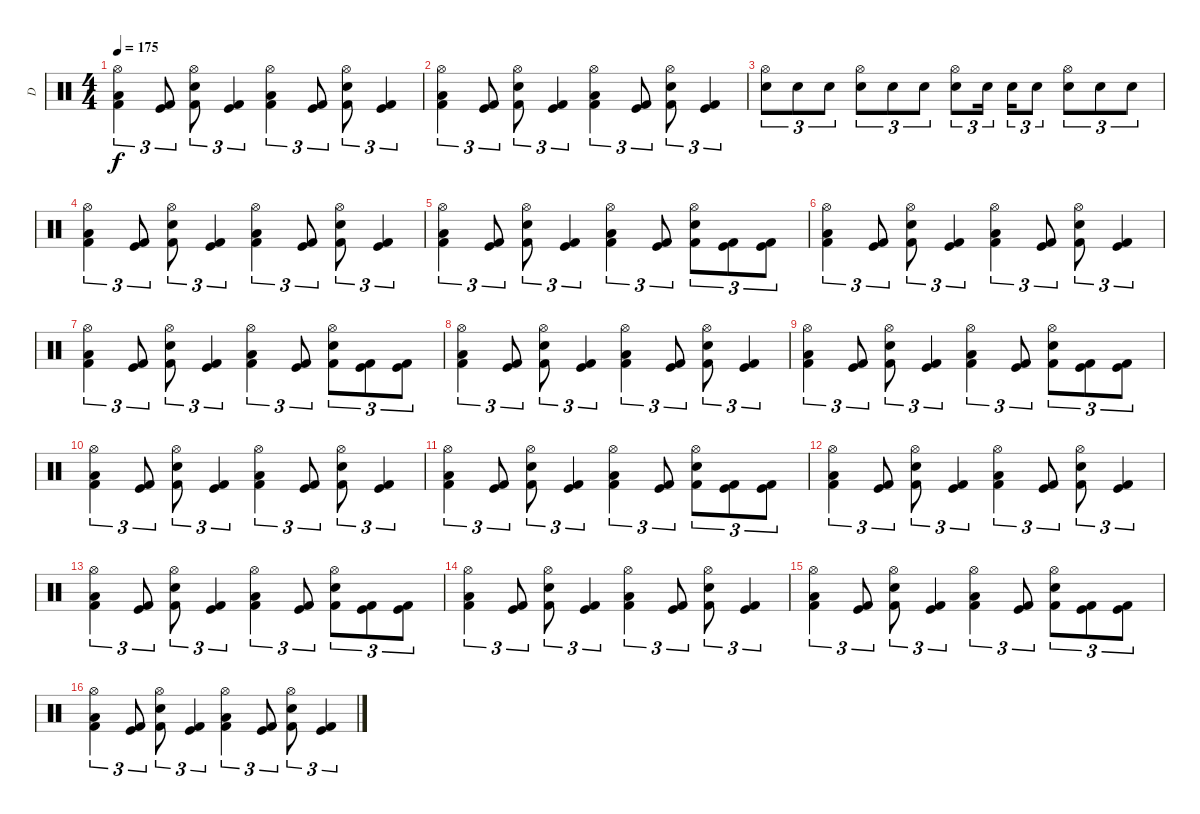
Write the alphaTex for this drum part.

\track ("D" "D") {instrument percussion}
\staff {score}
\articulation defaults
\ts (4 4)
\tempo 175
\clef neutral
\ks c
("Hi-Hat (open)" "Low Floor Tom (hit)" "Kick (hit) 2").4{tu (3 2) dy f} ("Kick (hit)" "Kick (hit) 2").8{tu (3 2)} ("Hi-Hat (open)" "Electric Snare (hit)" "Kick (hit) 2").8{tu (3 2)} ("Kick (hit)" "Kick (hit) 2").4{tu (3 2)} ("Hi-Hat (open)" "Low Floor Tom (hit)" "Kick (hit) 2").4{tu (3 2)} ("Kick (hit)" "Kick (hit) 2").8{tu (3 2)} ("Hi-Hat (open)" "Electric Snare (hit)" "Kick (hit) 2").8{tu (3 2)} ("Kick (hit)" "Kick (hit) 2").4{tu (3 2)} |
("Hi-Hat (open)" "Low Floor Tom (hit)" "Kick (hit) 2").4{tu (3 2)} ("Kick (hit)" "Kick (hit) 2").8{tu (3 2)} ("Hi-Hat (open)" "Electric Snare (hit)" "Kick (hit) 2").8{tu (3 2)} ("Kick (hit)" "Kick (hit) 2").4{tu (3 2)} ("Hi-Hat (open)" "Low Floor Tom (hit)" "Kick (hit) 2").4{tu (3 2)} ("Kick (hit)" "Kick (hit) 2").8{tu (3 2)} ("Hi-Hat (open)" "Electric Snare (hit)" "Kick (hit) 2").8{tu (3 2)} ("Kick (hit)" "Kick (hit) 2").4{tu (3 2)} |
("Hi-Hat (open)" "Electric Snare (hit)").8{tu (3 2)} "Electric Snare (hit)".8{tu (3 2)} "Electric Snare (hit)".8{tu (3 2)} ("Hi-Hat (open)" "Electric Snare (hit)").8{tu (3 2)} "Electric Snare (hit)".8{tu (3 2)} "Electric Snare (hit)".8{tu (3 2)} ("Hi-Hat (open)" "Electric Snare (hit)").8{tu (3 2)} "Electric Snare (hit)".16{tu (3 2)} "Electric Snare (hit)".16{tu (3 2)} "Electric Snare (hit)".8{tu (3 2)} ("Hi-Hat (open)" "Electric Snare (hit)").8{tu (3 2)} "Electric Snare (hit)".8{tu (3 2)} "Electric Snare (hit)".8{tu (3 2)} |
("Hi-Hat (open)" "Low Floor Tom (hit)" "Kick (hit) 2").4{tu (3 2)} ("Kick (hit)" "Kick (hit) 2").8{tu (3 2)} ("Hi-Hat (open)" "Electric Snare (hit)" "Kick (hit) 2").8{tu (3 2)} ("Kick (hit)" "Kick (hit) 2").4{tu (3 2)} ("Hi-Hat (open)" "Low Floor Tom (hit)" "Kick (hit) 2").4{tu (3 2)} ("Kick (hit)" "Kick (hit) 2").8{tu (3 2)} ("Hi-Hat (open)" "Electric Snare (hit)" "Kick (hit) 2").8{tu (3 2)} ("Kick (hit)" "Kick (hit) 2").4{tu (3 2)} |
("Hi-Hat (open)" "Low Floor Tom (hit)" "Kick (hit) 2").4{tu (3 2)} ("Kick (hit)" "Kick (hit) 2").8{tu (3 2)} ("Hi-Hat (open)" "Electric Snare (hit)" "Kick (hit) 2").8{tu (3 2)} ("Kick (hit)" "Kick (hit) 2").4{tu (3 2)} ("Hi-Hat (open)" "Low Floor Tom (hit)" "Kick (hit) 2").4{tu (3 2)} ("Kick (hit)" "Kick (hit) 2").8{tu (3 2)} ("Hi-Hat (open)" "Snare (hit) 2" "Kick (hit) 2").8{tu (3 2)} ("Kick (hit)" "Kick (hit) 2").8{tu (3 2)} ("Kick (hit)" "Kick (hit) 2").8{tu (3 2)} |
("Hi-Hat (open)" "Low Floor Tom (hit)" "Kick (hit) 2").4{tu (3 2)} ("Kick (hit)" "Kick (hit) 2").8{tu (3 2)} ("Hi-Hat (open)" "Electric Snare (hit)" "Kick (hit) 2").8{tu (3 2)} ("Kick (hit)" "Kick (hit) 2").4{tu (3 2)} ("Hi-Hat (open)" "Low Floor Tom (hit)" "Kick (hit) 2").4{tu (3 2)} ("Kick (hit)" "Kick (hit) 2").8{tu (3 2)} ("Hi-Hat (open)" "Electric Snare (hit)" "Kick (hit) 2").8{tu (3 2)} ("Kick (hit)" "Kick (hit) 2").4{tu (3 2)} |
("Hi-Hat (open)" "Low Floor Tom (hit)" "Kick (hit) 2").4{tu (3 2)} ("Kick (hit)" "Kick (hit) 2").8{tu (3 2)} ("Hi-Hat (open)" "Electric Snare (hit)" "Kick (hit) 2").8{tu (3 2)} ("Kick (hit)" "Kick (hit) 2").4{tu (3 2)} ("Hi-Hat (open)" "Low Floor Tom (hit)" "Kick (hit) 2").4{tu (3 2)} ("Kick (hit)" "Kick (hit) 2").8{tu (3 2)} ("Hi-Hat (open)" "Snare (hit) 2" "Kick (hit) 2").8{tu (3 2)} ("Kick (hit)" "Kick (hit) 2").8{tu (3 2)} ("Kick (hit)" "Kick (hit) 2").8{tu (3 2)} |
("Hi-Hat (open)" "Low Floor Tom (hit)" "Kick (hit) 2").4{tu (3 2)} ("Kick (hit)" "Kick (hit) 2").8{tu (3 2)} ("Hi-Hat (open)" "Electric Snare (hit)" "Kick (hit) 2").8{tu (3 2)} ("Kick (hit)" "Kick (hit) 2").4{tu (3 2)} ("Hi-Hat (open)" "Low Floor Tom (hit)" "Kick (hit) 2").4{tu (3 2)} ("Kick (hit)" "Kick (hit) 2").8{tu (3 2)} ("Hi-Hat (open)" "Electric Snare (hit)" "Kick (hit) 2").8{tu (3 2)} ("Kick (hit)" "Kick (hit) 2").4{tu (3 2)} |
("Hi-Hat (open)" "Low Floor Tom (hit)" "Kick (hit) 2").4{tu (3 2)} ("Kick (hit)" "Kick (hit) 2").8{tu (3 2)} ("Hi-Hat (open)" "Electric Snare (hit)" "Kick (hit) 2").8{tu (3 2)} ("Kick (hit)" "Kick (hit) 2").4{tu (3 2)} ("Hi-Hat (open)" "Low Floor Tom (hit)" "Kick (hit) 2").4{tu (3 2)} ("Kick (hit)" "Kick (hit) 2").8{tu (3 2)} ("Hi-Hat (open)" "Snare (hit) 2" "Kick (hit) 2").8{tu (3 2)} ("Kick (hit)" "Kick (hit) 2").8{tu (3 2)} ("Kick (hit)" "Kick (hit) 2").8{tu (3 2)} |
("Hi-Hat (open)" "Low Floor Tom (hit)" "Kick (hit) 2").4{tu (3 2)} ("Kick (hit)" "Kick (hit) 2").8{tu (3 2)} ("Hi-Hat (open)" "Electric Snare (hit)" "Kick (hit) 2").8{tu (3 2)} ("Kick (hit)" "Kick (hit) 2").4{tu (3 2)} ("Hi-Hat (open)" "Low Floor Tom (hit)" "Kick (hit) 2").4{tu (3 2)} ("Kick (hit)" "Kick (hit) 2").8{tu (3 2)} ("Hi-Hat (open)" "Electric Snare (hit)" "Kick (hit) 2").8{tu (3 2)} ("Kick (hit)" "Kick (hit) 2").4{tu (3 2)} |
("Hi-Hat (open)" "Low Floor Tom (hit)" "Kick (hit) 2").4{tu (3 2)} ("Kick (hit)" "Kick (hit) 2").8{tu (3 2)} ("Hi-Hat (open)" "Electric Snare (hit)" "Kick (hit) 2").8{tu (3 2)} ("Kick (hit)" "Kick (hit) 2").4{tu (3 2)} ("Hi-Hat (open)" "Low Floor Tom (hit)" "Kick (hit) 2").4{tu (3 2)} ("Kick (hit)" "Kick (hit) 2").8{tu (3 2)} ("Hi-Hat (open)" "Snare (hit) 2" "Kick (hit) 2").8{tu (3 2)} ("Kick (hit)" "Kick (hit) 2").8{tu (3 2)} ("Kick (hit)" "Kick (hit) 2").8{tu (3 2)} |
("Hi-Hat (open)" "Low Floor Tom (hit)" "Kick (hit) 2").4{tu (3 2)} ("Kick (hit)" "Kick (hit) 2").8{tu (3 2)} ("Hi-Hat (open)" "Electric Snare (hit)" "Kick (hit) 2").8{tu (3 2)} ("Kick (hit)" "Kick (hit) 2").4{tu (3 2)} ("Hi-Hat (open)" "Low Floor Tom (hit)" "Kick (hit) 2").4{tu (3 2)} ("Kick (hit)" "Kick (hit) 2").8{tu (3 2)} ("Hi-Hat (open)" "Electric Snare (hit)" "Kick (hit) 2").8{tu (3 2)} ("Kick (hit)" "Kick (hit) 2").4{tu (3 2)} |
("Hi-Hat (open)" "Low Floor Tom (hit)" "Kick (hit) 2").4{tu (3 2)} ("Kick (hit)" "Kick (hit) 2").8{tu (3 2)} ("Hi-Hat (open)" "Electric Snare (hit)" "Kick (hit) 2").8{tu (3 2)} ("Kick (hit)" "Kick (hit) 2").4{tu (3 2)} ("Hi-Hat (open)" "Low Floor Tom (hit)" "Kick (hit) 2").4{tu (3 2)} ("Kick (hit)" "Kick (hit) 2").8{tu (3 2)} ("Hi-Hat (open)" "Snare (hit) 2" "Kick (hit) 2").8{tu (3 2)} ("Kick (hit)" "Kick (hit) 2").8{tu (3 2)} ("Kick (hit)" "Kick (hit) 2").8{tu (3 2)} |
("Hi-Hat (open)" "Low Floor Tom (hit)" "Kick (hit) 2").4{tu (3 2)} ("Kick (hit)" "Kick (hit) 2").8{tu (3 2)} ("Hi-Hat (open)" "Electric Snare (hit)" "Kick (hit) 2").8{tu (3 2)} ("Kick (hit)" "Kick (hit) 2").4{tu (3 2)} ("Hi-Hat (open)" "Low Floor Tom (hit)" "Kick (hit) 2").4{tu (3 2)} ("Kick (hit)" "Kick (hit) 2").8{tu (3 2)} ("Hi-Hat (open)" "Electric Snare (hit)" "Kick (hit) 2").8{tu (3 2)} ("Kick (hit)" "Kick (hit) 2").4{tu (3 2)} |
("Hi-Hat (open)" "Low Floor Tom (hit)" "Kick (hit) 2").4{tu (3 2)} ("Kick (hit)" "Kick (hit) 2").8{tu (3 2)} ("Hi-Hat (open)" "Electric Snare (hit)" "Kick (hit) 2").8{tu (3 2)} ("Kick (hit)" "Kick (hit) 2").4{tu (3 2)} ("Hi-Hat (open)" "Low Floor Tom (hit)" "Kick (hit) 2").4{tu (3 2)} ("Kick (hit)" "Kick (hit) 2").8{tu (3 2)} ("Hi-Hat (open)" "Snare (hit) 2" "Kick (hit) 2").8{tu (3 2)} ("Kick (hit)" "Kick (hit) 2").8{tu (3 2)} ("Kick (hit)" "Kick (hit) 2").8{tu (3 2)} |
("Hi-Hat (open)" "Low Floor Tom (hit)" "Kick (hit) 2").4{tu (3 2)} ("Kick (hit)" "Kick (hit) 2").8{tu (3 2)} ("Hi-Hat (open)" "Electric Snare (hit)" "Kick (hit) 2").8{tu (3 2)} ("Kick (hit)" "Kick (hit) 2").4{tu (3 2)} ("Hi-Hat (open)" "Low Floor Tom (hit)" "Kick (hit) 2").4{tu (3 2)} ("Kick (hit)" "Kick (hit) 2").8{tu (3 2)} ("Hi-Hat (open)" "Electric Snare (hit)" "Kick (hit) 2").8{tu (3 2)} ("Kick (hit)" "Kick (hit) 2").4{tu (3 2)}
